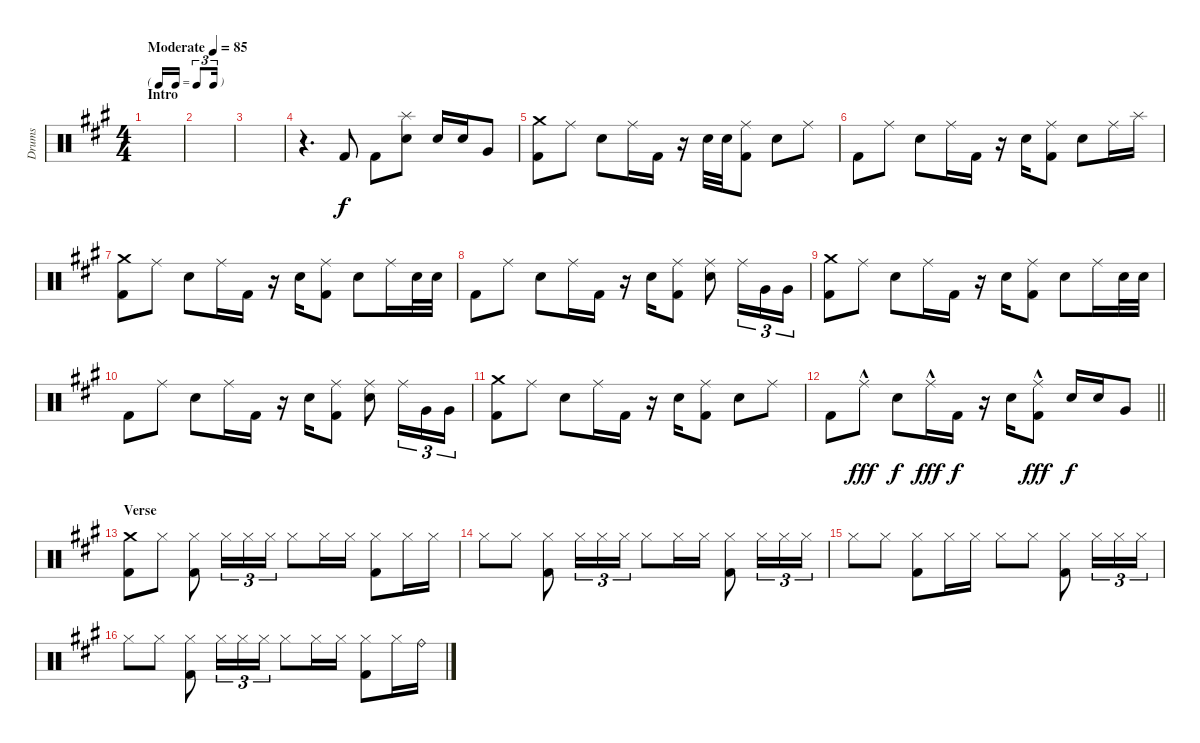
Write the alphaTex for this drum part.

\track ("Drums" "Drums") {instrument percussion}
\staff {score}
\articulation defaults
\ts (4 4)
\tf triplet16th
\section ("" "Intro")
\tempo (85 "Moderate")
\clef neutral
\ks a
|
|
|
r.4{d} "Kick (hit) 2".8 "Kick (hit) 2".8 ("Splash (hit)" "Snare (hit) 2").8 "Snare (hit) 2".16 "Snare (hit) 2".16 "Very Low Tom (hit)".8 |
("Crash medium (hit)" "Kick (hit) 2").8 "Ride (middle)".8 "Snare (hit) 2".8 "Ride (middle)".16 "Kick (hit) 2".16 r.16 "Snare (hit) 2".32 "Snare (hit) 2".32 ("Ride (middle)" "Kick (hit) 2").8 "Snare (hit) 2".8 "Ride (middle)".8 |
"Kick (hit) 2".8 "Ride (middle)".8 "Snare (hit) 2".8 "Ride (middle)".16 "Kick (hit) 2".16 r.16 "Snare (hit) 2".16 ("Ride (middle)" "Kick (hit) 2").8 "Snare (hit) 2".8 "Ride (middle)".16 "Splash (hit)".16 |
("Crash medium (hit)" "Kick (hit) 2").8 "Ride (middle)".8 "Snare (hit) 2".8 "Ride (middle)".16 "Kick (hit) 2".16 r.16 "Snare (hit) 2".16 ("Ride (middle)" "Kick (hit) 2").8 "Snare (hit) 2".8 "Ride (middle)".16 "Snare (hit) 2".32 "Snare (hit) 2".32 |
"Kick (hit) 2".8 "Ride (middle)".8 "Snare (hit) 2".8 "Ride (middle)".16 "Kick (hit) 2".16 r.16 "Snare (hit) 2".16 ("Ride (middle)" "Kick (hit) 2").8 ("Ride (middle)" "Snare (hit) 2").8 "Ride (middle)".16{tu (3 2)} "Very Low Tom (hit)".16{tu (3 2)} "Very Low Tom (hit)".16{tu (3 2)} |
("Crash medium (hit)" "Kick (hit) 2").8 "Ride (middle)".8 "Snare (hit) 2".8 "Ride (middle)".16 "Kick (hit) 2".16 r.16 "Snare (hit) 2".16 ("Ride (middle)" "Kick (hit) 2").8 "Snare (hit) 2".8 "Ride (middle)".16 "Snare (hit) 2".32 "Snare (hit) 2".32 |
"Kick (hit) 2".8 "Ride (middle)".8 "Snare (hit) 2".8 "Ride (middle)".16 "Kick (hit) 2".16 r.16 "Snare (hit) 2".16 ("Ride (middle)" "Kick (hit) 2").8 ("Ride (middle)" "Snare (hit) 2").8 "Ride (middle)".16{tu (3 2)} "Very Low Tom (hit)".16{tu (3 2)} "Very Low Tom (hit)".16{tu (3 2)} |
("Crash medium (hit)" "Kick (hit) 2").8 "Ride (middle)".8 "Snare (hit) 2".8 "Ride (middle)".16 "Kick (hit) 2".16 r.16 "Snare (hit) 2".16 ("Ride (middle)" "Kick (hit) 2").8 "Snare (hit) 2".8 "Ride (middle)".8 |
\barLineRight lightlight "Kick (hit) 2".8 "Ride (middle)"{hac}.8{dy fff} "Snare (hit) 2".8{dy f} "Ride (middle)"{hac}.16{dy fff} "Kick (hit) 2".16{dy f}
r.16 "Snare (hit) 2".16 ("Ride (middle)"{hac} "Kick (hit) 2").8{dy fff} "Snare (hit) 2".16{dy f} "Snare (hit) 2".16 "Very Low Tom (hit)".8 |
\section ("" "Verse")
("Crash medium (hit)" "Kick (hit) 2").8 "Hi-Hat (closed)".8 ("Hi-Hat (closed)" "Kick (hit) 2").8 "Hi-Hat (closed)".16{tu (3 2)} "Hi-Hat (closed)".16{tu (3 2)} "Hi-Hat (closed)".16{tu (3 2)} "Hi-Hat (closed)".8 "Hi-Hat (closed)".16 "Hi-Hat (closed)".16 ("Hi-Hat (closed)" "Kick (hit) 2").8 "Hi-Hat (closed)".16 "Hi-Hat (closed)".16 |
"Hi-Hat (closed)".8 "Hi-Hat (closed)".8 ("Hi-Hat (closed)" "Kick (hit) 2").8 "Hi-Hat (closed)".16{tu (3 2)} "Hi-Hat (closed)".16{tu (3 2)} "Hi-Hat (closed)".16{tu (3 2)} "Hi-Hat (closed)".8 "Hi-Hat (closed)".16 "Hi-Hat (closed)".16 ("Hi-Hat (closed)" "Kick (hit) 2").8 "Hi-Hat (closed)".16{tu (3 2)} "Hi-Hat (closed)".16{tu (3 2)} "Hi-Hat (closed)".16{tu (3 2)} |
"Hi-Hat (closed)".8 "Hi-Hat (closed)".8 ("Hi-Hat (closed)" "Kick (hit) 2").8 "Hi-Hat (closed)".16 "Hi-Hat (closed)".16 "Hi-Hat (closed)".8 "Hi-Hat (closed)".8 ("Hi-Hat (closed)" "Kick (hit) 2").8 "Hi-Hat (closed)".16{tu (3 2)} "Hi-Hat (closed)".16{tu (3 2)} "Hi-Hat (closed)".16{tu (3 2)} |
"Hi-Hat (closed)".8 "Hi-Hat (closed)".8 ("Hi-Hat (closed)" "Kick (hit) 2").8 "Hi-Hat (closed)".16{tu (3 2)} "Hi-Hat (closed)".16{tu (3 2)} "Hi-Hat (closed)".16{tu (3 2)} "Hi-Hat (closed)".8 "Hi-Hat (closed)".16 "Hi-Hat (closed)".16 ("Hi-Hat (closed)" "Kick (hit) 2").8 "Hi-Hat (closed)".16 "Ride (bell)".16
